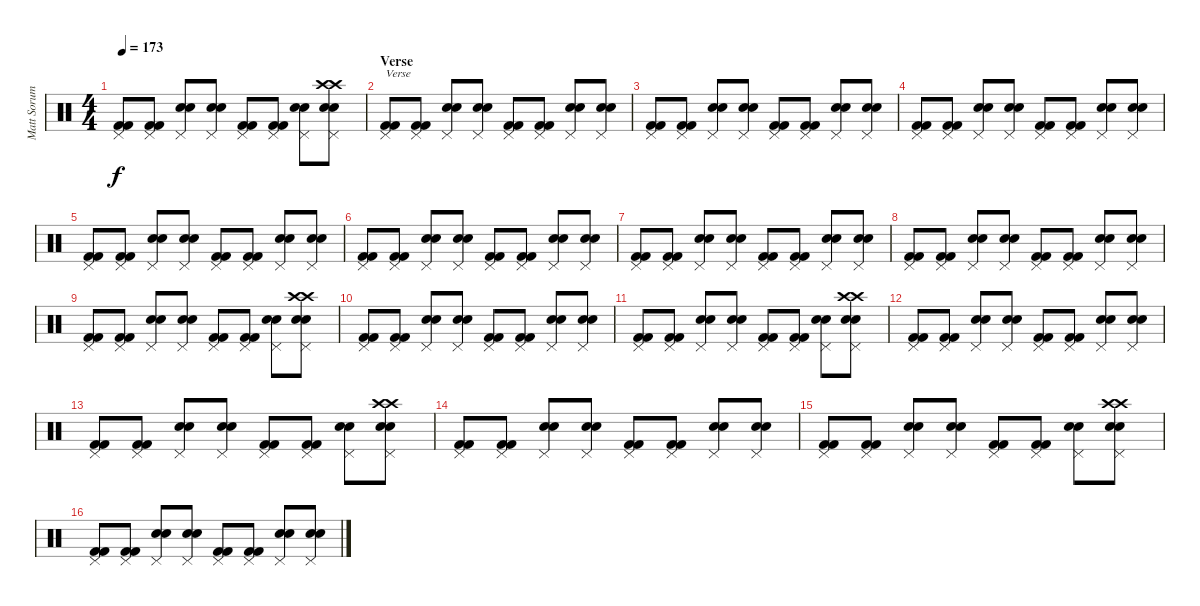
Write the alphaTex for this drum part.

\track ("Matt Sorum" "Matt Sorum") {instrument percussion}
\staff {score}
\articulation defaults
\ts (4 4)
\tempo 173
\clef neutral
\ks c
("Pedal Hi-Hat (hit)" "Kick (hit) 2" "Kick (hit) 2").8{dy f} ("Pedal Hi-Hat (hit)" "Kick (hit) 2" "Kick (hit) 2").8 ("Pedal Hi-Hat (hit)" "Snare (hit) 2" "Snare (hit) 2").8 ("Pedal Hi-Hat (hit)" "Snare (hit) 2" "Snare (hit) 2").8 ("Pedal Hi-Hat (hit)" "Kick (hit) 2" "Kick (hit) 2").8 ("Pedal Hi-Hat (hit)" "Kick (hit) 2" "Kick (hit) 2").8 ("Pedal Hi-Hat (hit)" "Snare (hit) 2" "Snare (hit) 2").8 ("Crash high (hit)" "Crash high (hit)" "Pedal Hi-Hat (hit)" "Snare (hit) 2" "Snare (hit) 2").8 |
\section ("" "Verse")
("Pedal Hi-Hat (hit)" "Kick (hit) 2" "Kick (hit) 2").8{txt "Verse"} ("Pedal Hi-Hat (hit)" "Kick (hit) 2" "Kick (hit) 2").8 ("Pedal Hi-Hat (hit)" "Snare (hit) 2" "Snare (hit) 2").8 ("Pedal Hi-Hat (hit)" "Snare (hit) 2" "Snare (hit) 2").8 ("Pedal Hi-Hat (hit)" "Kick (hit) 2" "Kick (hit) 2").8 ("Pedal Hi-Hat (hit)" "Kick (hit) 2" "Kick (hit) 2").8 ("Pedal Hi-Hat (hit)" "Snare (hit) 2" "Snare (hit) 2").8 ("Pedal Hi-Hat (hit)" "Snare (hit) 2" "Snare (hit) 2").8 |
("Pedal Hi-Hat (hit)" "Kick (hit) 2" "Kick (hit) 2").8 ("Pedal Hi-Hat (hit)" "Kick (hit) 2" "Kick (hit) 2").8 ("Pedal Hi-Hat (hit)" "Snare (hit) 2" "Snare (hit) 2").8 ("Pedal Hi-Hat (hit)" "Snare (hit) 2" "Snare (hit) 2").8 ("Pedal Hi-Hat (hit)" "Kick (hit) 2" "Kick (hit) 2").8 ("Pedal Hi-Hat (hit)" "Kick (hit) 2" "Kick (hit) 2").8 ("Pedal Hi-Hat (hit)" "Snare (hit) 2" "Snare (hit) 2").8 ("Pedal Hi-Hat (hit)" "Snare (hit) 2" "Snare (hit) 2").8 |
("Pedal Hi-Hat (hit)" "Kick (hit) 2" "Kick (hit) 2").8 ("Pedal Hi-Hat (hit)" "Kick (hit) 2" "Kick (hit) 2").8 ("Pedal Hi-Hat (hit)" "Snare (hit) 2" "Snare (hit) 2").8 ("Pedal Hi-Hat (hit)" "Snare (hit) 2" "Snare (hit) 2").8 ("Pedal Hi-Hat (hit)" "Kick (hit) 2" "Kick (hit) 2").8 ("Pedal Hi-Hat (hit)" "Kick (hit) 2" "Kick (hit) 2").8 ("Pedal Hi-Hat (hit)" "Snare (hit) 2" "Snare (hit) 2").8 ("Pedal Hi-Hat (hit)" "Snare (hit) 2" "Snare (hit) 2").8 |
("Pedal Hi-Hat (hit)" "Kick (hit) 2" "Kick (hit) 2").8 ("Pedal Hi-Hat (hit)" "Kick (hit) 2" "Kick (hit) 2").8 ("Pedal Hi-Hat (hit)" "Snare (hit) 2" "Snare (hit) 2").8 ("Pedal Hi-Hat (hit)" "Snare (hit) 2" "Snare (hit) 2").8 ("Pedal Hi-Hat (hit)" "Kick (hit) 2" "Kick (hit) 2").8 ("Pedal Hi-Hat (hit)" "Kick (hit) 2" "Kick (hit) 2").8 ("Pedal Hi-Hat (hit)" "Snare (hit) 2" "Snare (hit) 2").8 ("Pedal Hi-Hat (hit)" "Snare (hit) 2" "Snare (hit) 2").8 |
("Pedal Hi-Hat (hit)" "Kick (hit) 2" "Kick (hit) 2").8 ("Pedal Hi-Hat (hit)" "Kick (hit) 2" "Kick (hit) 2").8 ("Pedal Hi-Hat (hit)" "Snare (hit) 2" "Snare (hit) 2").8 ("Pedal Hi-Hat (hit)" "Snare (hit) 2" "Snare (hit) 2").8 ("Pedal Hi-Hat (hit)" "Kick (hit) 2" "Kick (hit) 2").8 ("Pedal Hi-Hat (hit)" "Kick (hit) 2" "Kick (hit) 2").8 ("Pedal Hi-Hat (hit)" "Snare (hit) 2" "Snare (hit) 2").8 ("Pedal Hi-Hat (hit)" "Snare (hit) 2" "Snare (hit) 2").8 |
("Pedal Hi-Hat (hit)" "Kick (hit) 2" "Kick (hit) 2").8 ("Pedal Hi-Hat (hit)" "Kick (hit) 2" "Kick (hit) 2").8 ("Pedal Hi-Hat (hit)" "Snare (hit) 2" "Snare (hit) 2").8 ("Pedal Hi-Hat (hit)" "Snare (hit) 2" "Snare (hit) 2").8 ("Pedal Hi-Hat (hit)" "Kick (hit) 2" "Kick (hit) 2").8 ("Pedal Hi-Hat (hit)" "Kick (hit) 2" "Kick (hit) 2").8 ("Pedal Hi-Hat (hit)" "Snare (hit) 2" "Snare (hit) 2").8 ("Pedal Hi-Hat (hit)" "Snare (hit) 2" "Snare (hit) 2").8 |
("Pedal Hi-Hat (hit)" "Kick (hit) 2" "Kick (hit) 2").8 ("Pedal Hi-Hat (hit)" "Kick (hit) 2" "Kick (hit) 2").8 ("Pedal Hi-Hat (hit)" "Snare (hit) 2" "Snare (hit) 2").8 ("Pedal Hi-Hat (hit)" "Snare (hit) 2" "Snare (hit) 2").8 ("Pedal Hi-Hat (hit)" "Kick (hit) 2" "Kick (hit) 2").8 ("Pedal Hi-Hat (hit)" "Kick (hit) 2" "Kick (hit) 2").8 ("Pedal Hi-Hat (hit)" "Snare (hit) 2" "Snare (hit) 2").8 ("Pedal Hi-Hat (hit)" "Snare (hit) 2" "Snare (hit) 2").8 |
("Pedal Hi-Hat (hit)" "Kick (hit) 2" "Kick (hit) 2").8 ("Pedal Hi-Hat (hit)" "Kick (hit) 2" "Kick (hit) 2").8 ("Pedal Hi-Hat (hit)" "Snare (hit) 2" "Snare (hit) 2").8 ("Pedal Hi-Hat (hit)" "Snare (hit) 2" "Snare (hit) 2").8 ("Pedal Hi-Hat (hit)" "Kick (hit) 2" "Kick (hit) 2").8 ("Pedal Hi-Hat (hit)" "Kick (hit) 2" "Kick (hit) 2").8 ("Pedal Hi-Hat (hit)" "Snare (hit) 2" "Snare (hit) 2").8 ("Crash high (hit)" "Crash high (hit)" "Pedal Hi-Hat (hit)" "Snare (hit) 2" "Snare (hit) 2").8 |
("Pedal Hi-Hat (hit)" "Kick (hit) 2" "Kick (hit) 2").8 ("Pedal Hi-Hat (hit)" "Kick (hit) 2" "Kick (hit) 2").8 ("Pedal Hi-Hat (hit)" "Snare (hit) 2" "Snare (hit) 2").8 ("Pedal Hi-Hat (hit)" "Snare (hit) 2" "Snare (hit) 2").8 ("Pedal Hi-Hat (hit)" "Kick (hit) 2" "Kick (hit) 2").8 ("Pedal Hi-Hat (hit)" "Kick (hit) 2" "Kick (hit) 2").8 ("Pedal Hi-Hat (hit)" "Snare (hit) 2" "Snare (hit) 2").8 ("Pedal Hi-Hat (hit)" "Snare (hit) 2" "Snare (hit) 2").8 |
("Pedal Hi-Hat (hit)" "Kick (hit) 2" "Kick (hit) 2").8 ("Pedal Hi-Hat (hit)" "Kick (hit) 2" "Kick (hit) 2").8 ("Pedal Hi-Hat (hit)" "Snare (hit) 2" "Snare (hit) 2").8 ("Pedal Hi-Hat (hit)" "Snare (hit) 2" "Snare (hit) 2").8 ("Pedal Hi-Hat (hit)" "Kick (hit) 2" "Kick (hit) 2").8 ("Pedal Hi-Hat (hit)" "Kick (hit) 2" "Kick (hit) 2").8 ("Pedal Hi-Hat (hit)" "Snare (hit) 2" "Snare (hit) 2").8 ("Crash high (hit)" "Crash high (hit)" "Pedal Hi-Hat (hit)" "Snare (hit) 2" "Snare (hit) 2").8 |
("Pedal Hi-Hat (hit)" "Kick (hit) 2" "Kick (hit) 2").8 ("Pedal Hi-Hat (hit)" "Kick (hit) 2" "Kick (hit) 2").8 ("Pedal Hi-Hat (hit)" "Snare (hit) 2" "Snare (hit) 2").8 ("Pedal Hi-Hat (hit)" "Snare (hit) 2" "Snare (hit) 2").8 ("Pedal Hi-Hat (hit)" "Kick (hit) 2" "Kick (hit) 2").8 ("Pedal Hi-Hat (hit)" "Kick (hit) 2" "Kick (hit) 2").8 ("Pedal Hi-Hat (hit)" "Snare (hit) 2" "Snare (hit) 2").8 ("Pedal Hi-Hat (hit)" "Snare (hit) 2" "Snare (hit) 2").8 |
("Pedal Hi-Hat (hit)" "Kick (hit) 2" "Kick (hit) 2").8 ("Pedal Hi-Hat (hit)" "Kick (hit) 2" "Kick (hit) 2").8 ("Pedal Hi-Hat (hit)" "Snare (hit) 2" "Snare (hit) 2").8 ("Pedal Hi-Hat (hit)" "Snare (hit) 2" "Snare (hit) 2").8 ("Pedal Hi-Hat (hit)" "Kick (hit) 2" "Kick (hit) 2").8 ("Pedal Hi-Hat (hit)" "Kick (hit) 2" "Kick (hit) 2").8 ("Pedal Hi-Hat (hit)" "Snare (hit) 2" "Snare (hit) 2").8 ("Crash high (hit)" "Crash high (hit)" "Pedal Hi-Hat (hit)" "Snare (hit) 2" "Snare (hit) 2").8 |
("Pedal Hi-Hat (hit)" "Kick (hit) 2" "Kick (hit) 2").8 ("Pedal Hi-Hat (hit)" "Kick (hit) 2" "Kick (hit) 2").8 ("Pedal Hi-Hat (hit)" "Snare (hit) 2" "Snare (hit) 2").8 ("Pedal Hi-Hat (hit)" "Snare (hit) 2" "Snare (hit) 2").8 ("Pedal Hi-Hat (hit)" "Kick (hit) 2" "Kick (hit) 2").8 ("Pedal Hi-Hat (hit)" "Kick (hit) 2" "Kick (hit) 2").8 ("Pedal Hi-Hat (hit)" "Snare (hit) 2" "Snare (hit) 2").8 ("Pedal Hi-Hat (hit)" "Snare (hit) 2" "Snare (hit) 2").8 |
("Pedal Hi-Hat (hit)" "Kick (hit) 2" "Kick (hit) 2").8 ("Pedal Hi-Hat (hit)" "Kick (hit) 2" "Kick (hit) 2").8 ("Pedal Hi-Hat (hit)" "Snare (hit) 2" "Snare (hit) 2").8 ("Pedal Hi-Hat (hit)" "Snare (hit) 2" "Snare (hit) 2").8 ("Pedal Hi-Hat (hit)" "Kick (hit) 2" "Kick (hit) 2").8 ("Pedal Hi-Hat (hit)" "Kick (hit) 2" "Kick (hit) 2").8 ("Pedal Hi-Hat (hit)" "Snare (hit) 2" "Snare (hit) 2").8 ("Crash high (hit)" "Crash high (hit)" "Pedal Hi-Hat (hit)" "Snare (hit) 2" "Snare (hit) 2").8 |
("Pedal Hi-Hat (hit)" "Kick (hit) 2" "Kick (hit) 2").8 ("Pedal Hi-Hat (hit)" "Kick (hit) 2" "Kick (hit) 2").8 ("Pedal Hi-Hat (hit)" "Snare (hit) 2" "Snare (hit) 2").8 ("Pedal Hi-Hat (hit)" "Snare (hit) 2" "Snare (hit) 2").8 ("Pedal Hi-Hat (hit)" "Kick (hit) 2" "Kick (hit) 2").8 ("Pedal Hi-Hat (hit)" "Kick (hit) 2" "Kick (hit) 2").8 ("Pedal Hi-Hat (hit)" "Snare (hit) 2" "Snare (hit) 2").8 ("Pedal Hi-Hat (hit)" "Snare (hit) 2" "Snare (hit) 2").8
